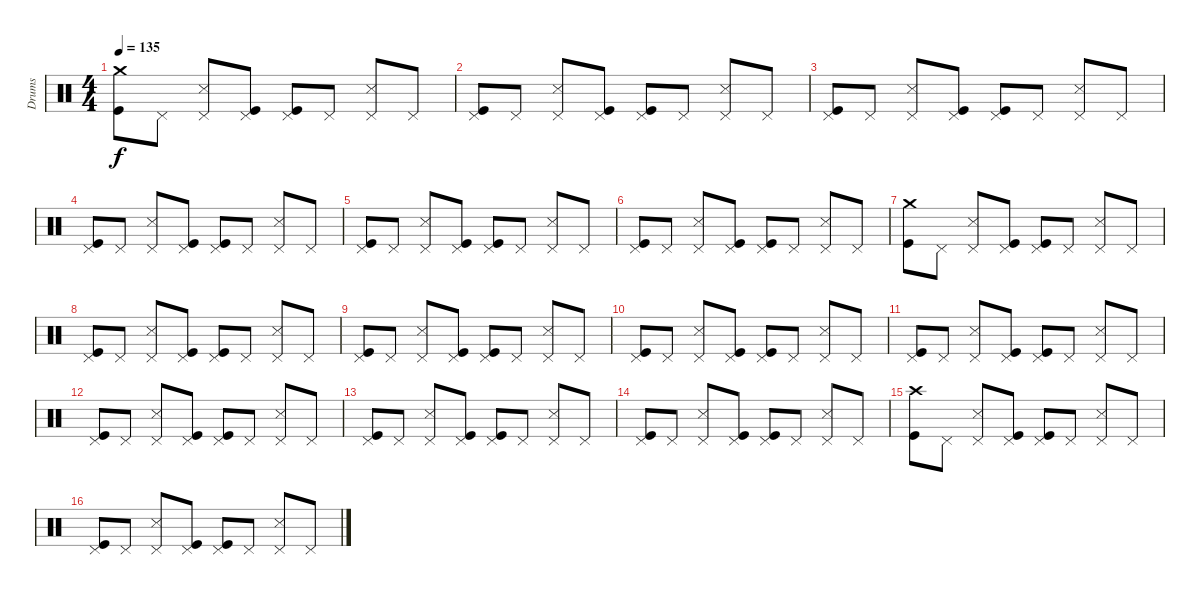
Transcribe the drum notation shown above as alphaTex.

\track ("Drums" "Drums") {instrument percussion}
\staff {score}
\articulation defaults
\ts (4 4)
\tempo 135
\clef neutral
\ks c
("Crash medium (hit)" "Kick (hit)").8{dy f} "Pedal Hi-Hat (hit)".8 ("Pedal Hi-Hat (hit)" "Snare (side stick) 3").8 ("Pedal Hi-Hat (hit)" "Kick (hit)").8 ("Pedal Hi-Hat (hit)" "Kick (hit)").8 "Pedal Hi-Hat (hit)".8 ("Pedal Hi-Hat (hit)" "Snare (side stick) 3").8 "Pedal Hi-Hat (hit)".8 |
("Pedal Hi-Hat (hit)" "Kick (hit)").8 "Pedal Hi-Hat (hit)".8 ("Pedal Hi-Hat (hit)" "Snare (side stick) 3").8 ("Pedal Hi-Hat (hit)" "Kick (hit)").8 ("Pedal Hi-Hat (hit)" "Kick (hit)").8 "Pedal Hi-Hat (hit)".8 ("Pedal Hi-Hat (hit)" "Snare (side stick) 3").8 "Pedal Hi-Hat (hit)".8 |
("Pedal Hi-Hat (hit)" "Kick (hit)").8 "Pedal Hi-Hat (hit)".8 ("Pedal Hi-Hat (hit)" "Snare (side stick) 3").8 ("Pedal Hi-Hat (hit)" "Kick (hit)").8 ("Pedal Hi-Hat (hit)" "Kick (hit)").8 "Pedal Hi-Hat (hit)".8 ("Pedal Hi-Hat (hit)" "Snare (side stick) 3").8 "Pedal Hi-Hat (hit)".8 |
("Pedal Hi-Hat (hit)" "Kick (hit)").8 "Pedal Hi-Hat (hit)".8 ("Pedal Hi-Hat (hit)" "Snare (side stick) 3").8 ("Pedal Hi-Hat (hit)" "Kick (hit)").8 ("Pedal Hi-Hat (hit)" "Kick (hit)").8 "Pedal Hi-Hat (hit)".8 ("Pedal Hi-Hat (hit)" "Snare (side stick) 3").8 "Pedal Hi-Hat (hit)".8 |
("Pedal Hi-Hat (hit)" "Kick (hit)").8 "Pedal Hi-Hat (hit)".8 ("Pedal Hi-Hat (hit)" "Snare (side stick) 3").8 ("Pedal Hi-Hat (hit)" "Kick (hit)").8 ("Pedal Hi-Hat (hit)" "Kick (hit)").8 "Pedal Hi-Hat (hit)".8 ("Pedal Hi-Hat (hit)" "Snare (side stick) 3").8 "Pedal Hi-Hat (hit)".8 |
("Pedal Hi-Hat (hit)" "Kick (hit)").8 "Pedal Hi-Hat (hit)".8 ("Pedal Hi-Hat (hit)" "Snare (side stick) 3").8 ("Pedal Hi-Hat (hit)" "Kick (hit)").8 ("Pedal Hi-Hat (hit)" "Kick (hit)").8 "Pedal Hi-Hat (hit)".8 ("Pedal Hi-Hat (hit)" "Snare (side stick) 3").8 "Pedal Hi-Hat (hit)".8 |
("Crash medium (hit)" "Kick (hit)").8 "Pedal Hi-Hat (hit)".8 ("Pedal Hi-Hat (hit)" "Snare (side stick) 3").8 ("Pedal Hi-Hat (hit)" "Kick (hit)").8 ("Pedal Hi-Hat (hit)" "Kick (hit)").8 "Pedal Hi-Hat (hit)".8 ("Pedal Hi-Hat (hit)" "Snare (side stick) 3").8 "Pedal Hi-Hat (hit)".8 |
("Pedal Hi-Hat (hit)" "Kick (hit)").8 "Pedal Hi-Hat (hit)".8 ("Pedal Hi-Hat (hit)" "Snare (side stick) 3").8 ("Pedal Hi-Hat (hit)" "Kick (hit)").8 ("Pedal Hi-Hat (hit)" "Kick (hit)").8 "Pedal Hi-Hat (hit)".8 ("Pedal Hi-Hat (hit)" "Snare (side stick) 3").8 "Pedal Hi-Hat (hit)".8 |
("Pedal Hi-Hat (hit)" "Kick (hit)").8 "Pedal Hi-Hat (hit)".8 ("Pedal Hi-Hat (hit)" "Snare (side stick) 3").8 ("Pedal Hi-Hat (hit)" "Kick (hit)").8 ("Pedal Hi-Hat (hit)" "Kick (hit)").8 "Pedal Hi-Hat (hit)".8 ("Pedal Hi-Hat (hit)" "Snare (side stick) 3").8 "Pedal Hi-Hat (hit)".8 |
("Pedal Hi-Hat (hit)" "Kick (hit)").8 "Pedal Hi-Hat (hit)".8 ("Pedal Hi-Hat (hit)" "Snare (side stick) 3").8 ("Pedal Hi-Hat (hit)" "Kick (hit)").8 ("Pedal Hi-Hat (hit)" "Kick (hit)").8 "Pedal Hi-Hat (hit)".8 ("Pedal Hi-Hat (hit)" "Snare (side stick) 3").8 "Pedal Hi-Hat (hit)".8 |
("Pedal Hi-Hat (hit)" "Kick (hit)").8 "Pedal Hi-Hat (hit)".8 ("Pedal Hi-Hat (hit)" "Snare (side stick) 3").8 ("Pedal Hi-Hat (hit)" "Kick (hit)").8 ("Pedal Hi-Hat (hit)" "Kick (hit)").8 "Pedal Hi-Hat (hit)".8 ("Pedal Hi-Hat (hit)" "Snare (side stick) 3").8 "Pedal Hi-Hat (hit)".8 |
("Pedal Hi-Hat (hit)" "Kick (hit)").8 "Pedal Hi-Hat (hit)".8 ("Pedal Hi-Hat (hit)" "Snare (side stick) 3").8 ("Pedal Hi-Hat (hit)" "Kick (hit)").8 ("Pedal Hi-Hat (hit)" "Kick (hit)").8 "Pedal Hi-Hat (hit)".8 ("Pedal Hi-Hat (hit)" "Snare (side stick) 3").8 "Pedal Hi-Hat (hit)".8 |
("Pedal Hi-Hat (hit)" "Kick (hit)").8 "Pedal Hi-Hat (hit)".8 ("Pedal Hi-Hat (hit)" "Snare (side stick) 3").8 ("Pedal Hi-Hat (hit)" "Kick (hit)").8 ("Pedal Hi-Hat (hit)" "Kick (hit)").8 "Pedal Hi-Hat (hit)".8 ("Pedal Hi-Hat (hit)" "Snare (side stick) 3").8 "Pedal Hi-Hat (hit)".8 |
("Pedal Hi-Hat (hit)" "Kick (hit)").8 "Pedal Hi-Hat (hit)".8 ("Pedal Hi-Hat (hit)" "Snare (side stick) 3").8 ("Pedal Hi-Hat (hit)" "Kick (hit)").8 ("Pedal Hi-Hat (hit)" "Kick (hit)").8 "Pedal Hi-Hat (hit)".8 ("Pedal Hi-Hat (hit)" "Snare (side stick) 3").8 "Pedal Hi-Hat (hit)".8 |
("Crash high (hit)" "Kick (hit)").8 "Pedal Hi-Hat (hit)".8 ("Pedal Hi-Hat (hit)" "Snare (side stick) 3").8 ("Pedal Hi-Hat (hit)" "Kick (hit)").8 ("Pedal Hi-Hat (hit)" "Kick (hit)").8 "Pedal Hi-Hat (hit)".8 ("Pedal Hi-Hat (hit)" "Snare (side stick) 3").8 "Pedal Hi-Hat (hit)".8 |
("Pedal Hi-Hat (hit)" "Kick (hit)").8 "Pedal Hi-Hat (hit)".8 ("Pedal Hi-Hat (hit)" "Snare (side stick) 3").8 ("Pedal Hi-Hat (hit)" "Kick (hit)").8 ("Pedal Hi-Hat (hit)" "Kick (hit)").8 "Pedal Hi-Hat (hit)".8 ("Pedal Hi-Hat (hit)" "Snare (side stick) 3").8 "Pedal Hi-Hat (hit)".8
